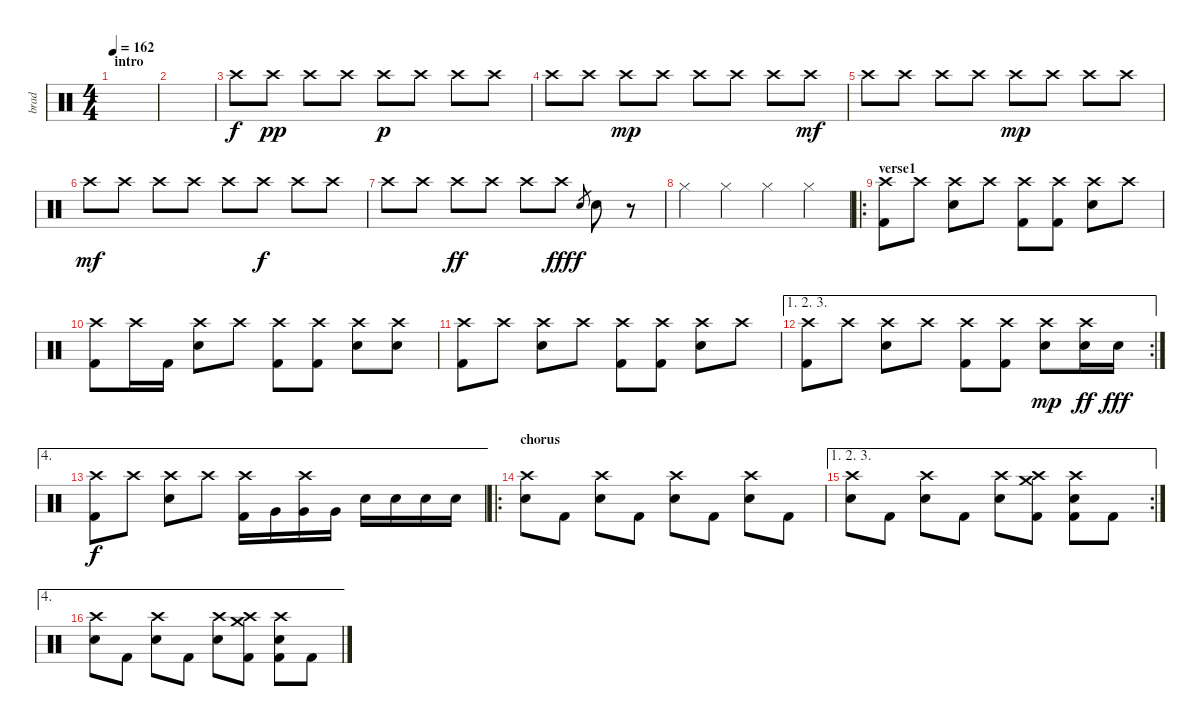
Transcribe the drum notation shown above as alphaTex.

\track ("brad" "brad") {instrument percussion}
\staff {score}
\articulation defaults
\ts (4 4)
\section ("" "intro")
\tempo 162
\clef neutral
\ks c
|
|
"Crash high (hit)".8 "Crash high (hit)".8{dy pp} "Crash high (hit)".8 "Crash high (hit)".8 "Crash high (hit)".8{dy p} "Crash high (hit)".8 "Crash high (hit)".8 "Crash high (hit)".8 |
"Crash high (hit)".8 "Crash high (hit)".8 "Crash high (hit)".8{dy mp} "Crash high (hit)".8 "Crash high (hit)".8 "Crash high (hit)".8 "Crash high (hit)".8 "Crash high (hit)".8{dy mf} |
"Crash high (hit)".8 "Crash high (hit)".8 "Crash high (hit)".8 "Crash high (hit)".8 "Crash high (hit)".8{dy mp} "Crash high (hit)".8 "Crash high (hit)".8 "Crash high (hit)".8 |
"Crash high (hit)".8{dy mf} "Crash high (hit)".8 "Crash high (hit)".8 "Crash high (hit)".8 "Crash high (hit)".8 "Crash high (hit)".8{dy f} "Crash high (hit)".8 "Crash high (hit)".8 |
"Crash high (hit)".8 "Crash high (hit)".8 "Crash high (hit)".8{dy ff} "Crash high (hit)".8 "Crash high (hit)".8 "Crash high (hit)".8{dy fff} "Electric Snare (hit)".8{gr dy f} "Electric Snare (hit)".8 r.8 |
"Hi-Hat (closed)".4 "Hi-Hat (closed)".4 "Hi-Hat (closed)".4 "Hi-Hat (closed)".4 |
\ro
\section ("" "verse1")
("Crash high (hit)" "Kick (hit) 2").8 "Crash high (hit)".8 ("Crash high (hit)" "Electric Snare (hit)").8 "Crash high (hit)".8 ("Crash high (hit)" "Kick (hit) 2").8 ("Crash high (hit)" "Kick (hit) 2").8 ("Crash high (hit)" "Electric Snare (hit)").8 "Crash high (hit)".8 |
("Crash high (hit)" "Kick (hit) 2").8 "Crash high (hit)".16 "Kick (hit) 2".16 ("Crash high (hit)" "Electric Snare (hit)").8 "Crash high (hit)".8 ("Crash high (hit)" "Kick (hit) 2").8 ("Crash high (hit)" "Kick (hit) 2").8 ("Crash high (hit)" "Electric Snare (hit)").8 ("Crash high (hit)" "Electric Snare (hit)").8 |
("Crash high (hit)" "Kick (hit) 2").8 "Crash high (hit)".8 ("Crash high (hit)" "Electric Snare (hit)").8 "Crash high (hit)".8 ("Crash high (hit)" "Kick (hit) 2").8 ("Crash high (hit)" "Kick (hit) 2").8 ("Crash high (hit)" "Electric Snare (hit)").8 "Crash high (hit)".8 |
\ae (1 2 3)
\rc 2
("Crash high (hit)" "Kick (hit) 2").8 "Crash high (hit)".8 ("Crash high (hit)" "Electric Snare (hit)").8 "Crash high (hit)".8 ("Crash high (hit)" "Kick (hit) 2").8 ("Crash high (hit)" "Kick (hit) 2").8 ("Crash high (hit)" "Electric Snare (hit)").8{dy mp} ("Crash high (hit)" "Electric Snare (hit)").16{dy ff} "Electric Snare (hit)".16{dy fff} |
\ae 4
("Crash high (hit)" "Kick (hit) 2").8{dy f} "Crash high (hit)".8 ("Crash high (hit)" "Electric Snare (hit)").8 "Crash high (hit)".8 ("Crash high (hit)" "Kick (hit) 2").16 "Very Low Tom (hit)".16 ("Crash high (hit)" "Very Low Tom (hit)").16 "Very Low Tom (hit)".16 "Electric Snare (hit)".16 "Electric Snare (hit)".16 "Electric Snare (hit)".16 "Electric Snare (hit)".16 |
\ro
\section ("" "chorus")
("Crash high (hit)" "Electric Snare (hit)").8 "Kick (hit) 2".8 ("Crash high (hit)" "Electric Snare (hit)").8 "Kick (hit) 2".8 ("Crash high (hit)" "Electric Snare (hit)").8 "Kick (hit) 2".8 ("Crash high (hit)" "Electric Snare (hit)").8 "Kick (hit) 2".8 |
\ae (1 2 3)
\rc 2
("Crash high (hit)" "Electric Snare (hit)").8 "Kick (hit) 2".8 ("Crash high (hit)" "Electric Snare (hit)").8 "Kick (hit) 2".8 ("Crash high (hit)" "Electric Snare (hit)").8 ("Crash medium (hit)" "Crash high (hit)" "Kick (hit) 2").8 ("Crash high (hit)" "Electric Snare (hit)" "Kick (hit) 2").8 "Kick (hit) 2".8 |
\ae 4
("Crash high (hit)" "Electric Snare (hit)").8 "Kick (hit) 2".8 ("Crash high (hit)" "Electric Snare (hit)").8 "Kick (hit) 2".8 ("Crash high (hit)" "Electric Snare (hit)").8 ("Crash medium (hit)" "Crash high (hit)" "Kick (hit) 2").8 ("Crash high (hit)" "Electric Snare (hit)" "Kick (hit) 2").8 "Kick (hit) 2".8
